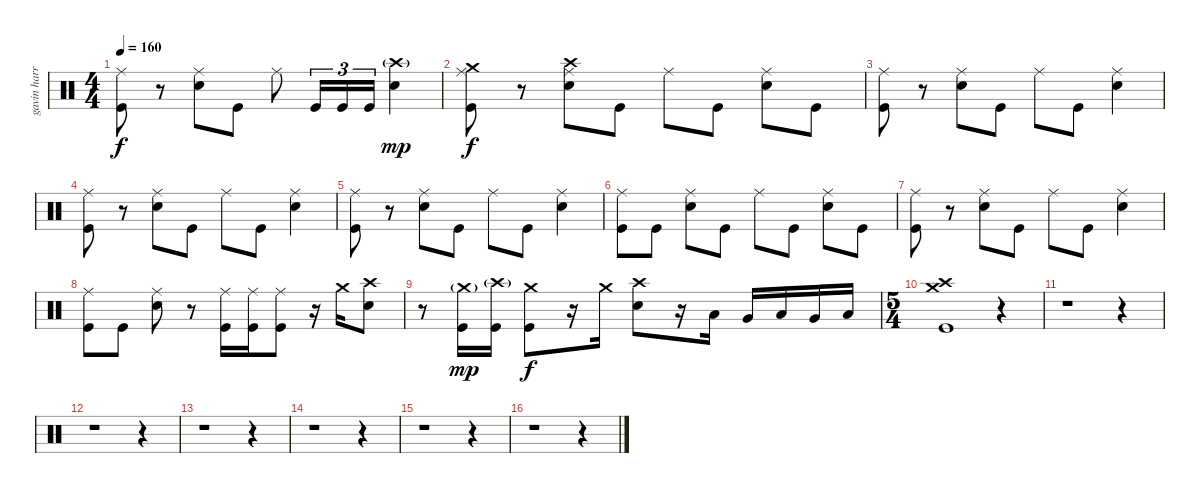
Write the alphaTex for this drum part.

\track ("gavin harrison ( drum ) " "gavin harr") {instrument percussion}
\staff {score}
\articulation defaults
\ts (4 4)
\tempo 160
\clef neutral
\ks c
("Ride (middle)" "Kick (hit)").8{dy f} r.8 ("Ride (middle)" "Snare (hit) 2").8 "Kick (hit)".8 "Ride (middle)".8 "Kick (hit)".16{tu (3 2)} "Kick (hit)".16{tu (3 2)} "Kick (hit)".16{tu (3 2)} ("Crash high (hit)"{g} "Snare (hit) 2").4{dy mp} |
("Ride (middle)" "Crash medium (hit)" "Kick (hit)").8{dy f} r.8 ("Ride (middle)" "Crash high (hit)" "Snare (hit) 2").8 "Kick (hit)".8 "Ride (middle)".8 "Kick (hit)".8 ("Ride (middle)" "Snare (hit) 2").8 "Kick (hit)".8 |
("Ride (middle)" "Kick (hit)").8 r.8 ("Ride (middle)" "Snare (hit) 2").8 "Kick (hit)".8 "Ride (middle)".8 "Kick (hit)".8 ("Ride (middle)" "Snare (hit) 2").4 |
("Ride (middle)" "Kick (hit)").8 r.8 ("Ride (middle)" "Snare (hit) 2").8 "Kick (hit)".8 "Ride (middle)".8 "Kick (hit)".8 ("Ride (middle)" "Snare (hit) 2").4 |
("Ride (middle)" "Kick (hit)").8 r.8 ("Ride (middle)" "Snare (hit) 2").8 "Kick (hit)".8 "Ride (middle)".8 "Kick (hit)".8 ("Ride (middle)" "Snare (hit) 2").4 |
("Ride (middle)" "Kick (hit)").8 "Kick (hit)".8 ("Ride (middle)" "Snare (hit) 2").8 "Kick (hit)".8 "Ride (middle)".8 "Kick (hit)".8 ("Ride (middle)" "Snare (hit) 2").8 "Kick (hit)".8 |
("Ride (middle)" "Kick (hit)").8 r.8 ("Ride (middle)" "Snare (hit) 2").8 "Kick (hit)".8 "Ride (middle)".8 "Kick (hit)".8 ("Ride (middle)" "Snare (hit) 2").4 |
("Ride (middle)" "Kick (hit)").8 "Kick (hit)".8 ("Ride (middle)" "Snare (hit) 2").8 r.8 ("Ride (middle)" "Kick (hit)").16 ("Ride (middle)" "Kick (hit)").16 ("Ride (middle)" "Kick (hit)").8 r.16 "Crash medium (hit)".16 ("Crash high (hit)" "Snare (hit) 2").8 |
r.8 ("Crash medium (hit)"{g} "Kick (hit)").16{dy mp} ("Crash high (hit)"{g} "Kick (hit)").16 ("Crash medium (hit)" "Kick (hit)").8{dy f} r.16 "Crash medium (hit)".16 ("Crash high (hit)" "Snare (hit) 2").8 r.16 "Low Tom (hit)".16 "Very Low Tom (hit)".16 "Low Tom (hit)".16 "Very Low Tom (hit)".16 "Low Floor Tom (hit)".16 |
\ts (5 4)
("Crash medium (hit)" "Crash high (hit)" "Kick (hit)").1 r.4 |
r.1 r.4 |
r.1 r.4 |
r.1 r.4 |
r.1 r.4 |
r.1 r.4 |
r.1 r.4
